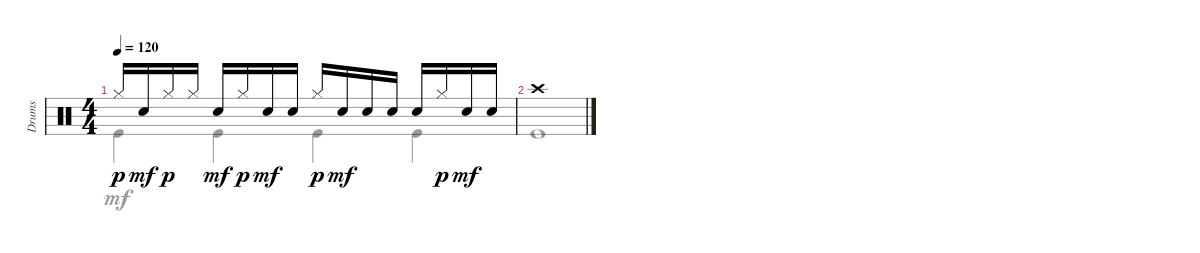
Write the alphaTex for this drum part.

\track ("Drums" "Drums") {instrument percussion}
\staff {score}
\articulation defaults
\voice
\ts (4 4)
\tempo 120
\clef neutral
\ks c "Hi-Hat (closed)".16{dy p} "Snare (hit) 2".16{dy mf} "Hi-Hat (closed)".16{dy p} "Hi-Hat (closed)".16 "Snare (hit) 2".16{dy mf} "Hi-Hat (closed)".16{dy p} "Snare (hit) 2".16{dy mf} "Snare (hit) 2".16 "Hi-Hat (closed)".16{dy p} "Snare (hit) 2".16{dy mf} "Snare (hit) 2".16 "Snare (hit) 2".16 "Snare (hit) 2".16 "Hi-Hat (closed)".16{dy p} "Snare (hit) 2".16{dy mf} "Snare (hit) 2".16
|
"Crash high (hit)".1 |
\voice
\clef neutral
\ottava regular
\simile none
\ks c "Kick (hit)".4{dy mf} "Kick (hit)".4 "Kick (hit)".4 "Kick (hit)".4
|
"Kick (hit)".1 |
